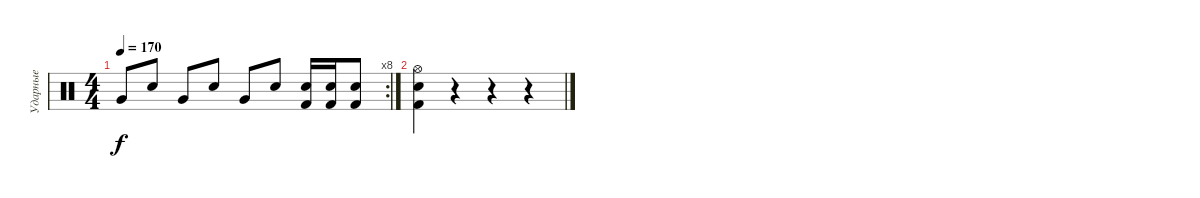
\track ("Ударные" "Ударные") {instrument percussion bank 25}
\staff {score}
\articulation defaults
\rc 8
\ts (4 4)
\tempo 170
\clef neutral
\ks c "Very Low Tom (hit)".8{dy f} "Electric Snare (hit)".8 "Very Low Tom (hit)".8 "Electric Snare (hit)".8 "Very Low Tom (hit)".8 "Electric Snare (hit)".8
("Electric Snare (hit)" "Kick (hit) 2").16 ("Snare (hit) 2" "Kick (hit) 2").16 ("Electric Snare (hit)" "Kick (hit) 2").8 |
("Hi-Hat (open)" "Snare (hit) 2" "Kick (hit) 2").4 r.4 r.4 r.4
